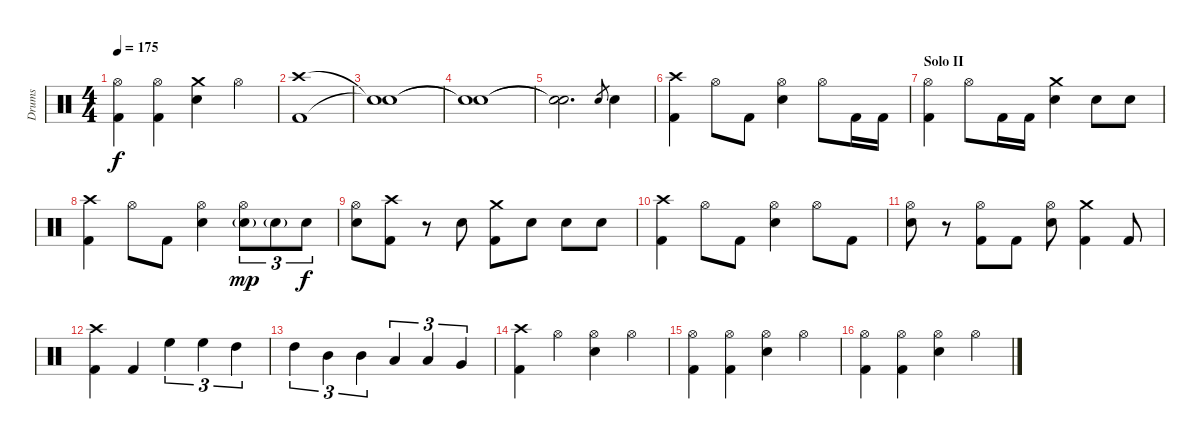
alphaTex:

\track ("Drums" "Drums") {instrument percussion}
\staff {score}
\articulation defaults
\ts (4 4)
\tempo 175
\clef neutral
\ks c
("Hi-Hat (open)" "Kick (hit) 2").4{dy f} ("Hi-Hat (open)" "Kick (hit) 2").4 ("Crash medium (hit)" "Snare (hit) 2").4 "Hi-Hat (open)".4 |
("Crash high (hit)" "Kick (hit) 2").1 |
("Snare (hit)"{t} "Snare (hit)"{t}).1 |
("Snare (hit)"{t} "Snare (hit)"{t}).1 |
("Snare (hit)"{t} "Snare (hit)"{t}).2{d} "Snare (hit) 2".8{gr} "Snare (hit) 2".4 |
("Crash high (hit)" "Kick (hit) 2").4 "Hi-Hat (open)".8 "Kick (hit) 2".8 ("Hi-Hat (open)" "Snare (hit) 2").4 "Hi-Hat (open)".8 "Kick (hit) 2".16 "Kick (hit) 2".16 |
\section ("" "Solo II")
("Hi-Hat (open)" "Kick (hit) 2").4 "Hi-Hat (open)".8 "Kick (hit) 2".16 "Kick (hit) 2".16 ("Crash medium (hit)" "Snare (hit) 2").4 "Snare (hit) 2".8 "Snare (hit) 2".8 |
("Crash high (hit)" "Kick (hit) 2").4 "Hi-Hat (open)".8 "Kick (hit) 2".8 ("Hi-Hat (open)" "Snare (hit) 2").4 ("Hi-Hat (open)" "Snare (hit) 2"{g}).8{tu (3 2) dy mp} "Snare (hit) 2"{g}.8{tu (3 2)} "Snare (hit) 2".8{tu (3 2) dy f} |
("Hi-Hat (open)" "Snare (hit) 2").8 ("Crash high (hit)" "Kick (hit) 2").8 r.8 "Snare (hit) 2".8 ("Crash medium (hit)" "Kick (hit) 2").8 "Snare (hit) 2".8 "Snare (hit) 2".8 "Snare (hit) 2".8 |
("Crash high (hit)" "Kick (hit) 2").4 "Hi-Hat (open)".8 "Kick (hit) 2".8 ("Hi-Hat (open)" "Snare (hit) 2").4 "Hi-Hat (open)".8 "Kick (hit) 2".8 |
("Hi-Hat (open)" "Snare (hit) 2").8 r.8 ("Hi-Hat (open)" "Kick (hit) 2").8 "Kick (hit) 2".8 ("Hi-Hat (open)" "Snare (hit) 2").8 ("Crash medium (hit)" "Kick (hit) 2").4 "Kick (hit) 2".8 |
("Crash high (hit)" "Kick (hit) 2").4 "Kick (hit) 2".4 "High Floor Tom (hit)".4{tu (3 2)} "High Floor Tom (hit)".4{tu (3 2)} "High Tom (hit)".4{tu (3 2)} |
"High Tom (hit)".4{tu (3 2)} "Mid Tom (hit)".4{tu (3 2)} "Mid Tom (hit)".4{tu (3 2)} "Low Tom (hit)".4{tu (3 2)} "Low Tom (hit)".4{tu (3 2)} "Very Low Tom (hit)".4{tu (3 2)} |
("Crash high (hit)" "Kick (hit) 2").4 "Hi-Hat (open)".4 ("Hi-Hat (open)" "Snare (hit) 2").4 "Hi-Hat (open)".4 |
("Hi-Hat (open)" "Kick (hit) 2").4 ("Hi-Hat (open)" "Kick (hit) 2").4 ("Hi-Hat (open)" "Snare (hit) 2").4 "Hi-Hat (open)".4 |
("Hi-Hat (open)" "Kick (hit) 2").4 ("Hi-Hat (open)" "Kick (hit) 2").4 ("Hi-Hat (open)" "Snare (hit) 2").4 "Hi-Hat (open)".4
